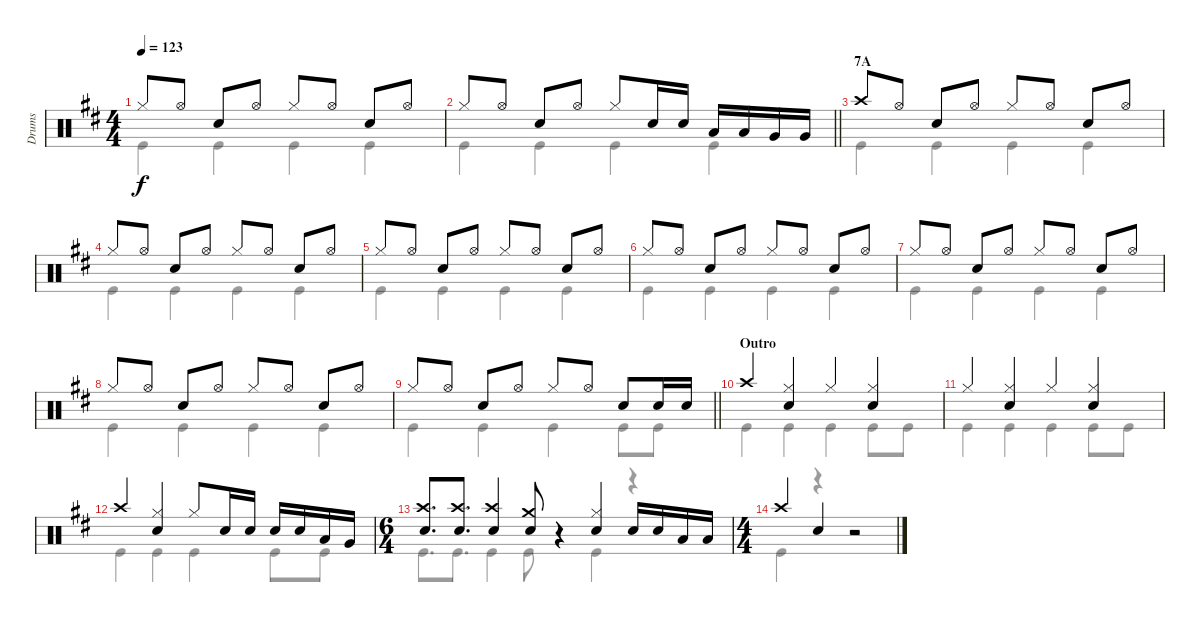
\track ("Drums" "Drums") {instrument percussion}
\staff {score}
\articulation defaults
\voice
\ts (4 4)
\tempo 123
\clef neutral
\ks d "Hi-Hat (closed)".8{dy f} "Hi-Hat (open)".8 "Snare (hit) 2".8 "Hi-Hat (open)".8 "Hi-Hat (closed)".8 "Hi-Hat (open)".8 "Snare (hit) 2".8 "Hi-Hat (open)".8
|
\barLineRight lightlight "Hi-Hat (closed)".8 "Hi-Hat (open)".8 "Snare (hit) 2".8 "Hi-Hat (open)".8 "Hi-Hat (closed)".8 "Snare (hit) 2".16 "Snare (hit) 2".16 "Low Tom (hit)".16 "Low Tom (hit)".16 "Very Low Tom (hit)".16 "Very Low Tom (hit)".16
|
\section ("" "7A")
"Crash high (hit)".8 "Hi-Hat (open)".8 "Snare (hit) 2".8 "Hi-Hat (open)".8 "Hi-Hat (closed)".8 "Hi-Hat (open)".8 "Snare (hit) 2".8 "Hi-Hat (open)".8 |
"Hi-Hat (closed)".8 "Hi-Hat (open)".8 "Snare (hit) 2".8 "Hi-Hat (open)".8 "Hi-Hat (closed)".8 "Hi-Hat (open)".8 "Snare (hit) 2".8 "Hi-Hat (open)".8 |
"Hi-Hat (closed)".8 "Hi-Hat (open)".8 "Snare (hit) 2".8 "Hi-Hat (open)".8 "Hi-Hat (closed)".8 "Hi-Hat (open)".8 "Snare (hit) 2".8 "Hi-Hat (open)".8 |
"Hi-Hat (closed)".8 "Hi-Hat (open)".8 "Snare (hit) 2".8 "Hi-Hat (open)".8 "Hi-Hat (closed)".8 "Hi-Hat (open)".8 "Snare (hit) 2".8 "Hi-Hat (open)".8 |
"Hi-Hat (closed)".8 "Hi-Hat (open)".8 "Snare (hit) 2".8 "Hi-Hat (open)".8 "Hi-Hat (closed)".8 "Hi-Hat (open)".8 "Snare (hit) 2".8 "Hi-Hat (open)".8 |
"Hi-Hat (closed)".8 "Hi-Hat (open)".8 "Snare (hit) 2".8 "Hi-Hat (open)".8 "Hi-Hat (closed)".8 "Hi-Hat (open)".8 "Snare (hit) 2".8 "Hi-Hat (open)".8 |
\barLineRight lightlight "Hi-Hat (closed)".8 "Hi-Hat (open)".8 "Snare (hit) 2".8 "Hi-Hat (open)".8 "Hi-Hat (closed)".8 "Hi-Hat (open)".8 "Snare (hit) 2".8 "Snare (hit) 2".16 "Snare (hit) 2".16
|
\section ("" "Outro")
"Crash high (hit)".4 ("Hi-Hat (closed)" "Snare (hit) 2").4 "Hi-Hat (closed)".4 ("Hi-Hat (closed)" "Snare (hit) 2").4 |
"Hi-Hat (closed)".4 ("Hi-Hat (closed)" "Snare (hit) 2").4 "Hi-Hat (closed)".4 ("Hi-Hat (closed)" "Snare (hit) 2").4 |
"Crash high (hit)".4 ("Hi-Hat (closed)" "Snare (hit) 2").4 "Hi-Hat (closed)".8 "Snare (hit) 2".16 "Snare (hit) 2".16 "Snare (hit) 2".16 "Snare (hit) 2".16 "Low Tom (hit)".16 "Very Low Tom (hit)".16 |
\ts (6 4)
("Snare (hit) 2" "Crash high (hit)").8{d} ("Snare (hit) 2" "Crash high (hit)").8{d} ("Snare (hit) 2" "Crash high (hit)").4 ("Snare (hit) 2" "Crash medium (hit)").8 r.4 ("Snare (hit) 2" "Hi-Hat (closed)").4 "Snare (hit) 2".16 "Snare (hit) 2".16 "Low Tom (hit)".16 "Low Tom (hit)".16 |
\ts (4 4)
"Crash high (hit)".4 "Snare (hit) 2".4 r.2
\voice
\clef neutral
\ottava regular
\simile none
\ks d "Kick (hit)".4{dy f} "Kick (hit)".4 "Kick (hit)".4 "Kick (hit)".4
|
\barLineRight lightlight "Kick (hit)".4 "Kick (hit)".4 "Kick (hit)".4 "Kick (hit)".4
|
"Kick (hit)".4 "Kick (hit)".4 "Kick (hit)".4 "Kick (hit)".4 |
"Kick (hit)".4 "Kick (hit)".4 "Kick (hit)".4 "Kick (hit)".4 |
"Kick (hit)".4 "Kick (hit)".4 "Kick (hit)".4 "Kick (hit)".4 |
"Kick (hit)".4 "Kick (hit)".4 "Kick (hit)".4 "Kick (hit)".4 |
"Kick (hit)".4 "Kick (hit)".4 "Kick (hit)".4 "Kick (hit)".4 |
"Kick (hit)".4 "Kick (hit)".4 "Kick (hit)".4 "Kick (hit)".4 |
\barLineRight lightlight "Kick (hit)".4 "Kick (hit)".4 "Kick (hit)".4 "Kick (hit)".8 "Kick (hit)".8
|
"Kick (hit)".4 "Kick (hit)".4 "Kick (hit)".4 "Kick (hit)".8 "Kick (hit)".8 |
"Kick (hit)".4 "Kick (hit)".4 "Kick (hit)".4 "Kick (hit)".8 "Kick (hit)".8 |
"Kick (hit)".4 "Kick (hit)".4 "Kick (hit)".4 "Kick (hit)".8 "Kick (hit)".8 |
"Kick (hit)".8{d} "Kick (hit)".8{d} "Kick (hit)".4 "Kick (hit)".8 r.4 "Kick (hit)".4 r.4 |
"Kick (hit)".4 r.4 r.2
